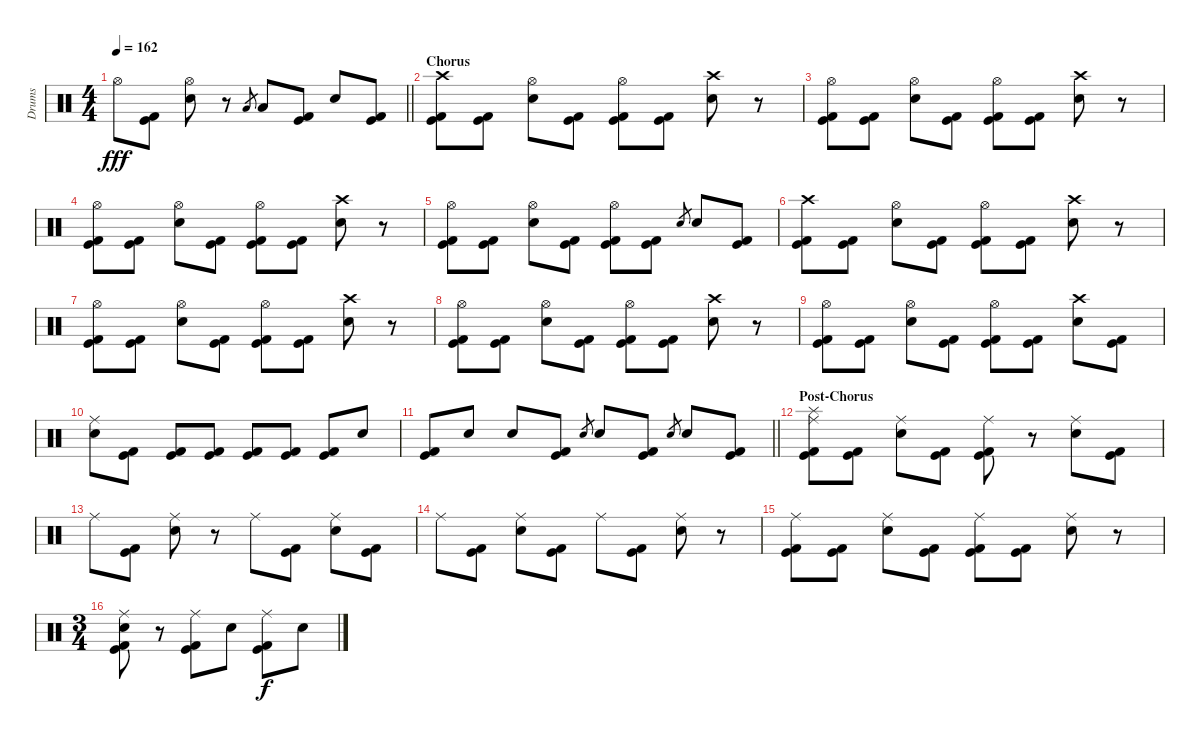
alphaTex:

\track ("Drums" "Drums") {instrument percussion}
\staff {score}
\articulation defaults
\ts (4 4)
\tempo 162
\clef neutral
\barLineRight lightlight
\ks c "Hi-Hat (open)".8{dy fff}
("Kick (hit)" "Kick (hit) 2").8 ("Hi-Hat (open)" "Electric Snare (hit)").8 r.8 "Low Floor Tom (hit)".8{gr} "Low Floor Tom (hit)".8 ("Kick (hit)" "Kick (hit) 2").8 "Electric Snare (hit)".8 ("Kick (hit)" "Kick (hit) 2").8 |
\section ("" "Chorus")
("Crash high (hit)" "Kick (hit)" "Kick (hit) 2").8 ("Kick (hit)" "Kick (hit) 2").8 ("Hi-Hat (open)" "Electric Snare (hit)").8 ("Kick (hit)" "Kick (hit) 2").8 ("Hi-Hat (open)" "Kick (hit)" "Kick (hit) 2").8 ("Kick (hit)" "Kick (hit) 2").8 ("Crash high (hit)" "Electric Snare (hit)").8 r.8 |
("Hi-Hat (open)" "Kick (hit)" "Kick (hit) 2").8 ("Kick (hit)" "Kick (hit) 2").8 ("Hi-Hat (open)" "Electric Snare (hit)").8 ("Kick (hit)" "Kick (hit) 2").8 ("Hi-Hat (open)" "Kick (hit)" "Kick (hit) 2").8 ("Kick (hit)" "Kick (hit) 2").8 ("Crash high (hit)" "Electric Snare (hit)").8 r.8 |
("Hi-Hat (open)" "Kick (hit)" "Kick (hit) 2").8 ("Kick (hit)" "Kick (hit) 2").8 ("Hi-Hat (open)" "Electric Snare (hit)").8 ("Kick (hit)" "Kick (hit) 2").8 ("Hi-Hat (open)" "Kick (hit)" "Kick (hit) 2").8 ("Kick (hit)" "Kick (hit) 2").8 ("Crash high (hit)" "Electric Snare (hit)").8 r.8 |
("Hi-Hat (open)" "Kick (hit)" "Kick (hit) 2").8 ("Kick (hit)" "Kick (hit) 2").8 ("Hi-Hat (open)" "Electric Snare (hit)").8 ("Kick (hit)" "Kick (hit) 2").8 ("Hi-Hat (open)" "Kick (hit)" "Kick (hit) 2").8 ("Kick (hit)" "Kick (hit) 2").8 "Electric Snare (hit)".8{gr} "Electric Snare (hit)".8 ("Kick (hit)" "Kick (hit) 2").8 |
("Crash high (hit)" "Kick (hit)" "Kick (hit) 2").8 ("Kick (hit)" "Kick (hit) 2").8 ("Hi-Hat (open)" "Electric Snare (hit)").8 ("Kick (hit)" "Kick (hit) 2").8 ("Hi-Hat (open)" "Kick (hit)" "Kick (hit) 2").8 ("Kick (hit)" "Kick (hit) 2").8 ("Crash high (hit)" "Electric Snare (hit)").8 r.8 |
("Hi-Hat (open)" "Kick (hit)" "Kick (hit) 2").8 ("Kick (hit)" "Kick (hit) 2").8 ("Hi-Hat (open)" "Electric Snare (hit)").8 ("Kick (hit)" "Kick (hit) 2").8 ("Hi-Hat (open)" "Kick (hit)" "Kick (hit) 2").8 ("Kick (hit)" "Kick (hit) 2").8 ("Crash high (hit)" "Electric Snare (hit)").8 r.8 |
("Hi-Hat (open)" "Kick (hit)" "Kick (hit) 2").8 ("Kick (hit)" "Kick (hit) 2").8 ("Hi-Hat (open)" "Electric Snare (hit)").8 ("Kick (hit)" "Kick (hit) 2").8 ("Hi-Hat (open)" "Kick (hit)" "Kick (hit) 2").8 ("Kick (hit)" "Kick (hit) 2").8 ("Crash high (hit)" "Electric Snare (hit)").8 r.8 |
("Hi-Hat (open)" "Kick (hit)" "Kick (hit) 2").8 ("Kick (hit)" "Kick (hit) 2").8 ("Hi-Hat (open)" "Electric Snare (hit)").8 ("Kick (hit)" "Kick (hit) 2").8 ("Hi-Hat (open)" "Kick (hit)" "Kick (hit) 2").8 ("Kick (hit)" "Kick (hit) 2").8 ("Crash high (hit)" "Electric Snare (hit)").8 ("Kick (hit)" "Kick (hit) 2").8 |
("Ride (middle)" "Electric Snare (hit)").8 ("Kick (hit)" "Kick (hit) 2").8 ("Kick (hit)" "Kick (hit) 2").8 ("Kick (hit)" "Kick (hit) 2").8 ("Kick (hit)" "Kick (hit) 2").8 ("Kick (hit)" "Kick (hit) 2").8 ("Kick (hit)" "Kick (hit) 2").8 "Electric Snare (hit)".8 |
\barLineRight lightlight
("Kick (hit)" "Kick (hit) 2").8 "Electric Snare (hit)".8 "Electric Snare (hit)".8 ("Kick (hit)" "Kick (hit) 2").8 "Electric Snare (hit)".8{gr} "Electric Snare (hit)".8 ("Kick (hit)" "Kick (hit) 2").8 "Electric Snare (hit)".8{gr} "Electric Snare (hit)".8 ("Kick (hit)" "Kick (hit) 2").8 |
\section ("" "Post-Chorus")
("Splash (hit)" "Ride (middle)" "Kick (hit)" "Kick (hit) 2").8 ("Kick (hit)" "Kick (hit) 2").8 ("Ride (middle)" "Electric Snare (hit)").8 ("Kick (hit)" "Kick (hit) 2").8 ("Ride (middle)" "Kick (hit)" "Kick (hit) 2").8 r.8 ("Ride (middle)" "Electric Snare (hit)").8 ("Kick (hit)" "Kick (hit) 2").8 |
"Ride (middle)".8 ("Kick (hit)" "Kick (hit) 2").8 ("Ride (middle)" "Electric Snare (hit)").8 r.8 "Ride (middle)".8 ("Kick (hit)" "Kick (hit) 2").8 ("Ride (middle)" "Electric Snare (hit)").8 ("Kick (hit)" "Kick (hit) 2").8 |
"Ride (middle)".8 ("Kick (hit)" "Kick (hit) 2").8 ("Ride (middle)" "Electric Snare (hit)").8 ("Kick (hit)" "Kick (hit) 2").8 "Ride (middle)".8 ("Kick (hit)" "Kick (hit) 2").8 ("Ride (middle)" "Electric Snare (hit)").8 r.8 |
("Ride (middle)" "Kick (hit)" "Kick (hit) 2").8 ("Kick (hit)" "Kick (hit) 2").8 ("Ride (middle)" "Electric Snare (hit)").8 ("Kick (hit)" "Kick (hit) 2").8 ("Ride (middle)" "Kick (hit)" "Kick (hit) 2").8 ("Kick (hit)" "Kick (hit) 2").8 ("Ride (middle)" "Electric Snare (hit)").8 r.8 |
\ts (3 4)
("Ride (middle)" "Electric Snare (hit)" "Kick (hit)" "Kick (hit) 2").8 r.8 ("Ride (middle)" "Kick (hit)" "Kick (hit) 2").8 "Electric Snare (hit)".8 ("Ride (middle)" "Kick (hit)" "Kick (hit) 2").8{dy f} "Electric Snare (hit)".8
